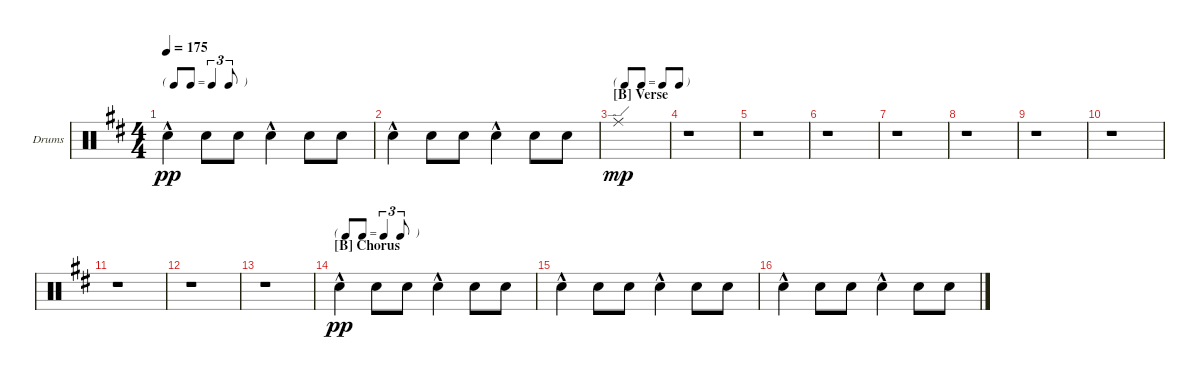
\defaultSystemsLayout 4
\bracketExtendMode groupsimilarinstruments
\firstSystemTrackNameOrientation horizontal
\otherSystemsTrackNameOrientation horizontal
\track ("Drumkit" "Drums") {instrument percussion}
\staff {score}
\articulation defaults
\ts (4 4)
\tf triplet8th
\tempo 175
\clef neutral
\scale
0.333333
\ks d "Snare (hit) 2"{hac}.4{dy pp} "Snare (hit) 2".8 "Snare (hit) 2".8 "Snare (hit) 2"{hac}.4 "Snare (hit) 2".8 "Snare (hit) 2".8
|
"Snare (hit) 2"{hac}.4 "Snare (hit) 2".8 "Snare (hit) 2".8 "Snare (hit) 2"{hac}.4 "Snare (hit) 2".8 "Snare (hit) 2".8 |
\tf none
\section ("B" "Verse")
"Ride (edge)".1{dy mp} |
r.1 |
r.1 |
r.1 |
r.1 |
r.1 |
r.1 |
r.1 |
r.1 |
r.1 |
r.1 |
\tf triplet8th
\section ("B" "Chorus")
"Snare (hit) 2"{hac}.4{dy pp} "Snare (hit) 2".8 "Snare (hit) 2".8 "Snare (hit) 2"{hac}.4 "Snare (hit) 2".8 "Snare (hit) 2".8 |
"Snare (hit) 2"{hac}.4 "Snare (hit) 2".8 "Snare (hit) 2".8 "Snare (hit) 2"{hac}.4 "Snare (hit) 2".8 "Snare (hit) 2".8 |
"Snare (hit) 2"{hac}.4 "Snare (hit) 2".8 "Snare (hit) 2".8 "Snare (hit) 2"{hac}.4 "Snare (hit) 2".8 "Snare (hit) 2".8
